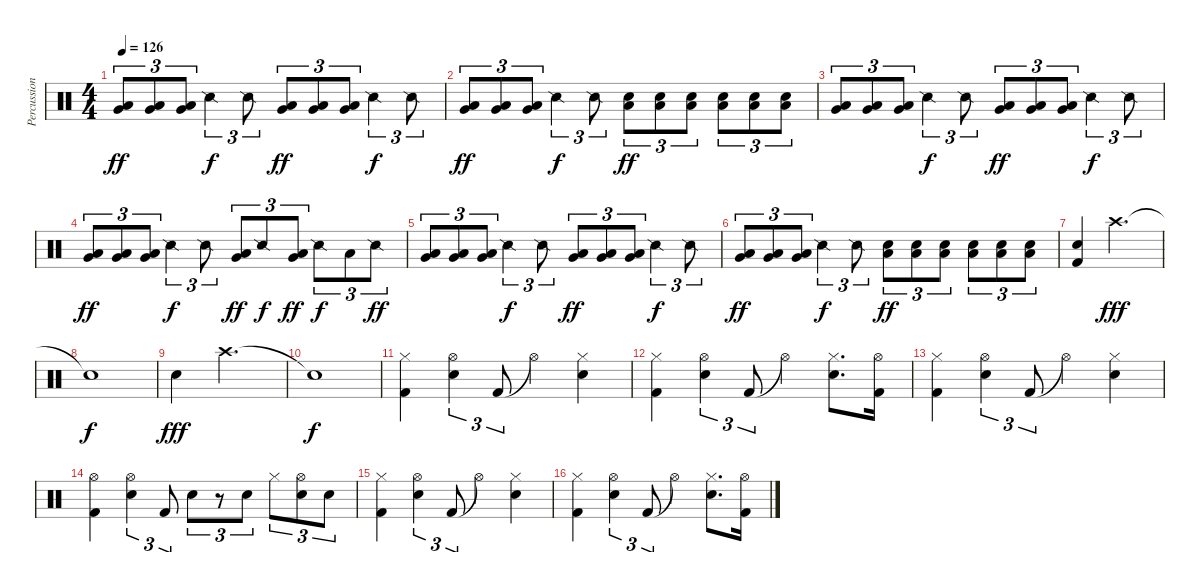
\track ("Percussion" "Percussion") {instrument percussion}
\staff {score}
\articulation defaults
\ts (4 4)
\tempo 126
\clef neutral
\ks c
("Very Low Tom (hit)" "Low Floor Tom (hit)").8{tu (3 2) dy ff} ("Very Low Tom (hit)" "Low Floor Tom (hit)").8{tu (3 2)} ("Very Low Tom (hit)" "Low Floor Tom (hit)").8{tu (3 2)} "Snare (side stick) 2".4{tu (3 2) dy f} "Snare (side stick) 2".8{tu (3 2)} ("Very Low Tom (hit)" "Low Floor Tom (hit)").8{tu (3 2) dy ff} ("Very Low Tom (hit)" "Low Floor Tom (hit)").8{tu (3 2)} ("Very Low Tom (hit)" "Low Floor Tom (hit)").8{tu (3 2)} "Snare (side stick) 2".4{tu (3 2) dy f} "Snare (side stick) 2".8{tu (3 2)} |
("Very Low Tom (hit)" "Low Floor Tom (hit)").8{tu (3 2) dy ff} ("Very Low Tom (hit)" "Low Floor Tom (hit)").8{tu (3 2)} ("Very Low Tom (hit)" "Low Floor Tom (hit)").8{tu (3 2)} "Snare (side stick) 2".4{tu (3 2) dy f} "Snare (side stick) 2".8{tu (3 2)} ("Electric Snare (hit)" "Low Floor Tom (hit)").8{tu (3 2) dy ff} ("Electric Snare (hit)" "Low Floor Tom (hit)").8{tu (3 2)} ("Electric Snare (hit)" "Low Floor Tom (hit)").8{tu (3 2)} ("Electric Snare (hit)" "Low Floor Tom (hit)").8{tu (3 2)} ("Electric Snare (hit)" "Low Floor Tom (hit)").8{tu (3 2)} ("Electric Snare (hit)" "Low Floor Tom (hit)").8{tu (3 2)} |
("Very Low Tom (hit)" "Low Floor Tom (hit)").8{tu (3 2)} ("Very Low Tom (hit)" "Low Floor Tom (hit)").8{tu (3 2)} ("Very Low Tom (hit)" "Low Floor Tom (hit)").8{tu (3 2)} "Snare (side stick) 2".4{tu (3 2) dy f} "Snare (side stick) 2".8{tu (3 2)} ("Very Low Tom (hit)" "Low Floor Tom (hit)").8{tu (3 2) dy ff} ("Very Low Tom (hit)" "Low Floor Tom (hit)").8{tu (3 2)} ("Very Low Tom (hit)" "Low Floor Tom (hit)").8{tu (3 2)} "Snare (side stick) 2".4{tu (3 2) dy f} "Snare (side stick) 2".8{tu (3 2)} |
("Very Low Tom (hit)" "Low Floor Tom (hit)").8{tu (3 2) dy ff} ("Very Low Tom (hit)" "Low Floor Tom (hit)").8{tu (3 2)} ("Very Low Tom (hit)" "Low Floor Tom (hit)").8{tu (3 2)} "Snare (side stick) 2".4{tu (3 2) dy f} "Snare (side stick) 2".8{tu (3 2)} ("Very Low Tom (hit)" "Low Floor Tom (hit)").8{tu (3 2) dy ff} "Snare (side stick) 2".8{tu (3 2) dy f} ("Very Low Tom (hit)" "Low Floor Tom (hit)").8{tu (3 2) dy ff} "Snare (side stick) 2".8{tu (3 2) dy f} "Low Floor Tom (hit)".8{tu (3 2)} "Snare (side stick) 2".8{tu (3 2) dy ff} |
("Very Low Tom (hit)" "Low Floor Tom (hit)").8{tu (3 2)} ("Very Low Tom (hit)" "Low Floor Tom (hit)").8{tu (3 2)} ("Very Low Tom (hit)" "Low Floor Tom (hit)").8{tu (3 2)} "Snare (side stick) 2".4{tu (3 2) dy f} "Snare (side stick) 2".8{tu (3 2)} ("Very Low Tom (hit)" "Low Floor Tom (hit)").8{tu (3 2) dy ff} ("Very Low Tom (hit)" "Low Floor Tom (hit)").8{tu (3 2)} ("Very Low Tom (hit)" "Low Floor Tom (hit)").8{tu (3 2)} "Snare (side stick) 2".4{tu (3 2) dy f} "Snare (side stick) 2".8{tu (3 2)} |
("Very Low Tom (hit)" "Low Floor Tom (hit)").8{tu (3 2) dy ff} ("Very Low Tom (hit)" "Low Floor Tom (hit)").8{tu (3 2)} ("Very Low Tom (hit)" "Low Floor Tom (hit)").8{tu (3 2)} "Snare (side stick) 2".4{tu (3 2) dy f} "Snare (side stick) 2".8{tu (3 2)} ("Electric Snare (hit)" "Low Floor Tom (hit)").8{tu (3 2) dy ff} ("Electric Snare (hit)" "Low Floor Tom (hit)").8{tu (3 2)} ("Electric Snare (hit)" "Low Floor Tom (hit)").8{tu (3 2)} ("Electric Snare (hit)" "Low Floor Tom (hit)").8{tu (3 2)} ("Electric Snare (hit)" "Low Floor Tom (hit)").8{tu (3 2)} ("Electric Snare (hit)" "Low Floor Tom (hit)").8{tu (3 2)} |
("Electric Snare (hit)" "Kick (hit) 2").4 "Crash high (hit)".2{d dy fff} |
"Snare (hit)"{t}.1{dy f} |
"Electric Snare (hit)".4{dy fff} "Crash high (hit)".2{d} |
"Snare (hit)"{t}.1{dy f} |
("Hi-Hat (closed)" "Kick (hit) 2").4 ("Hi-Hat (open)" "Snare (hit) 2").4{tu (3 2)} "Kick (hit) 2".8{tu (3 2)} "Hi-Hat (open)"{t}.4 ("Hi-Hat (closed)" "Snare (hit) 2").4 |
("Hi-Hat (closed)" "Kick (hit) 2").4 ("Hi-Hat (open)" "Snare (hit) 2").4{tu (3 2)} "Kick (hit) 2".8{tu (3 2)} "Hi-Hat (open)"{t}.4 ("Hi-Hat (closed)" "Snare (hit) 2").8{d} ("Hi-Hat (open)" "Kick (hit) 2").16 |
("Hi-Hat (closed)" "Kick (hit) 2").4 ("Hi-Hat (open)" "Snare (hit) 2").4{tu (3 2)} "Kick (hit) 2".8{tu (3 2)} "Hi-Hat (open)"{t}.4 ("Hi-Hat (closed)" "Snare (hit) 2").4 |
("Hi-Hat (open)" "Kick (hit) 2").4 ("Hi-Hat (open)" "Snare (hit) 2").4{tu (3 2)} "Kick (hit) 2".8{tu (3 2)} "Snare (hit) 2".8{tu (3 2)} r.8{tu (3 2)} "Snare (hit) 2".8{tu (3 2)} "Hi-Hat (closed)".8{tu (3 2)} ("Hi-Hat (open)" "Snare (hit) 2").8{tu (3 2)} "Snare (hit) 2".8{tu (3 2)} |
("Hi-Hat (closed)" "Kick (hit) 2").4 ("Hi-Hat (open)" "Snare (hit) 2").4{tu (3 2)} "Kick (hit) 2".8{tu (3 2)} "Hi-Hat (open)"{t}.4 ("Hi-Hat (closed)" "Snare (hit) 2").4 |
("Hi-Hat (closed)" "Kick (hit) 2").4 ("Hi-Hat (open)" "Snare (hit) 2").4{tu (3 2)} "Kick (hit) 2".8{tu (3 2)} "Hi-Hat (open)"{t}.4 ("Hi-Hat (closed)" "Snare (hit) 2").8{d} ("Hi-Hat (open)" "Kick (hit) 2").16
